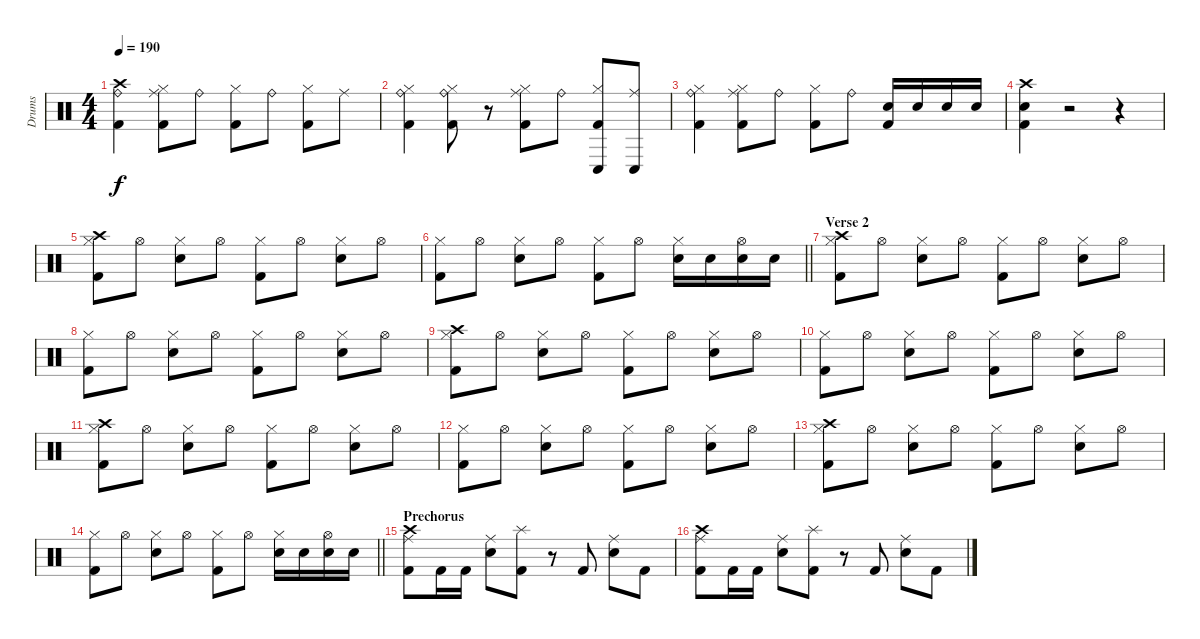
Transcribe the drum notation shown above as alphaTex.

\track ("Drums" "Drums") {instrument percussion}
\staff {score}
\articulation defaults
\ts (4 4)
\tempo 190
\clef neutral
\ks c
("Crash high (hit)" "Ride (bell)" "Kick (hit) 2").4{dy f} ("Hi-Hat (closed)" "Ride (middle)" "Kick (hit) 2").8 "Ride (bell)".8 ("Hi-Hat (closed)" "Kick (hit) 2").8 "Ride (bell)".8 ("Hi-Hat (closed)" "Kick (hit) 2").8 "Ride (middle)".8 |
("Hi-Hat (closed)" "Ride (bell)" "Kick (hit) 2").4 ("Hi-Hat (closed)" "Ride (bell)" "Kick (hit) 2").8 r.8 ("Hi-Hat (closed)" "Ride (middle)" "Kick (hit) 2").8 "Ride (bell)".8 ("Hi-Hat (closed)" "Conga low (hit)" "Kick (hit) 2").8 ("Conga low (hit)" "Ride (middle)").8 |
("Hi-Hat (closed)" "Ride (bell)" "Kick (hit) 2").4 ("Hi-Hat (closed)" "Ride (middle)" "Kick (hit) 2").8 "Ride (bell)".8 ("Hi-Hat (closed)" "Kick (hit) 2").8 "Ride (bell)".8 ("Snare (hit) 2" "Kick (hit) 2").16 "Snare (hit) 2".16 "Snare (hit) 2".16 "Snare (hit) 2".16 |
("Crash high (hit)" "Snare (hit) 2" "Kick (hit) 2").4 r.2 r.4 |
("Crash high (hit)" "Hi-Hat (closed)" "Kick (hit) 2").8 "Hi-Hat (open)".8 ("Hi-Hat (closed)" "Snare (hit) 2").8 "Hi-Hat (open)".8 ("Hi-Hat (closed)" "Kick (hit) 2").8 "Hi-Hat (open)".8 ("Hi-Hat (closed)" "Snare (hit) 2").8 "Hi-Hat (open)".8 |
\barLineRight lightlight
("Hi-Hat (closed)" "Kick (hit) 2").8 "Hi-Hat (open)".8 ("Hi-Hat (closed)" "Snare (hit) 2").8 "Hi-Hat (open)".8 ("Hi-Hat (closed)" "Kick (hit) 2").8 "Hi-Hat (open)".8 ("Hi-Hat (closed)" "Snare (hit) 2").16 "Snare (hit) 2".16 ("Hi-Hat (open)" "Snare (hit) 2").16 "Snare (hit) 2".16 |
\section ("" "Verse 2")
("Crash high (hit)" "Hi-Hat (closed)" "Kick (hit) 2").8 "Hi-Hat (open)".8 ("Hi-Hat (closed)" "Snare (hit) 2").8 "Hi-Hat (open)".8 ("Hi-Hat (closed)" "Kick (hit) 2").8 "Hi-Hat (open)".8 ("Hi-Hat (closed)" "Snare (hit) 2").8 "Hi-Hat (open)".8 |
("Hi-Hat (closed)" "Kick (hit) 2").8 "Hi-Hat (open)".8 ("Hi-Hat (closed)" "Snare (hit) 2").8 "Hi-Hat (open)".8 ("Hi-Hat (closed)" "Kick (hit) 2").8 "Hi-Hat (open)".8 ("Hi-Hat (closed)" "Snare (hit) 2").8 "Hi-Hat (open)".8 |
("Crash high (hit)" "Hi-Hat (closed)" "Kick (hit) 2").8 "Hi-Hat (open)".8 ("Hi-Hat (closed)" "Snare (hit) 2").8 "Hi-Hat (open)".8 ("Hi-Hat (closed)" "Kick (hit) 2").8 "Hi-Hat (open)".8 ("Hi-Hat (closed)" "Snare (hit) 2").8 "Hi-Hat (open)".8 |
("Hi-Hat (closed)" "Kick (hit) 2").8 "Hi-Hat (open)".8 ("Hi-Hat (closed)" "Snare (hit) 2").8 "Hi-Hat (open)".8 ("Hi-Hat (closed)" "Kick (hit) 2").8 "Hi-Hat (open)".8 ("Hi-Hat (closed)" "Snare (hit) 2").8 "Hi-Hat (open)".8 |
("Crash high (hit)" "Hi-Hat (closed)" "Kick (hit) 2").8 "Hi-Hat (open)".8 ("Hi-Hat (closed)" "Snare (hit) 2").8 "Hi-Hat (open)".8 ("Hi-Hat (closed)" "Kick (hit) 2").8 "Hi-Hat (open)".8 ("Hi-Hat (closed)" "Snare (hit) 2").8 "Hi-Hat (open)".8 |
("Hi-Hat (closed)" "Kick (hit) 2").8 "Hi-Hat (open)".8 ("Hi-Hat (closed)" "Snare (hit) 2").8 "Hi-Hat (open)".8 ("Hi-Hat (closed)" "Kick (hit) 2").8 "Hi-Hat (open)".8 ("Hi-Hat (closed)" "Snare (hit) 2").8 "Hi-Hat (open)".8 |
("Crash high (hit)" "Hi-Hat (closed)" "Kick (hit) 2").8 "Hi-Hat (open)".8 ("Hi-Hat (closed)" "Snare (hit) 2").8 "Hi-Hat (open)".8 ("Hi-Hat (closed)" "Kick (hit) 2").8 "Hi-Hat (open)".8 ("Hi-Hat (closed)" "Snare (hit) 2").8 "Hi-Hat (open)".8 |
\barLineRight lightlight
("Hi-Hat (closed)" "Kick (hit) 2").8 "Hi-Hat (open)".8 ("Hi-Hat (closed)" "Snare (hit) 2").8 "Hi-Hat (open)".8 ("Hi-Hat (closed)" "Kick (hit) 2").8 "Hi-Hat (open)".8 ("Hi-Hat (closed)" "Snare (hit) 2").16 "Snare (hit) 2".16 ("Hi-Hat (open)" "Snare (hit) 2").16 "Snare (hit) 2".16 |
\section ("" "Prechorus")
("Crash high (hit)" "Ride (middle)" "Kick (hit) 2").8 "Kick (hit) 2".16 "Kick (hit) 2".16 ("Ride (middle)" "Snare (hit) 2").8 ("Splash (hit)" "Kick (hit) 2").8 r.8 "Kick (hit) 2".8 ("Ride (middle)" "Snare (hit) 2").8 "Kick (hit) 2".8 |
("Crash high (hit)" "Ride (middle)" "Kick (hit) 2").8 "Kick (hit) 2".16 "Kick (hit) 2".16 ("Ride (middle)" "Snare (hit) 2").8 ("Splash (hit)" "Kick (hit) 2").8 r.8 "Kick (hit) 2".8 ("Ride (middle)" "Snare (hit) 2").8 "Kick (hit) 2".8
